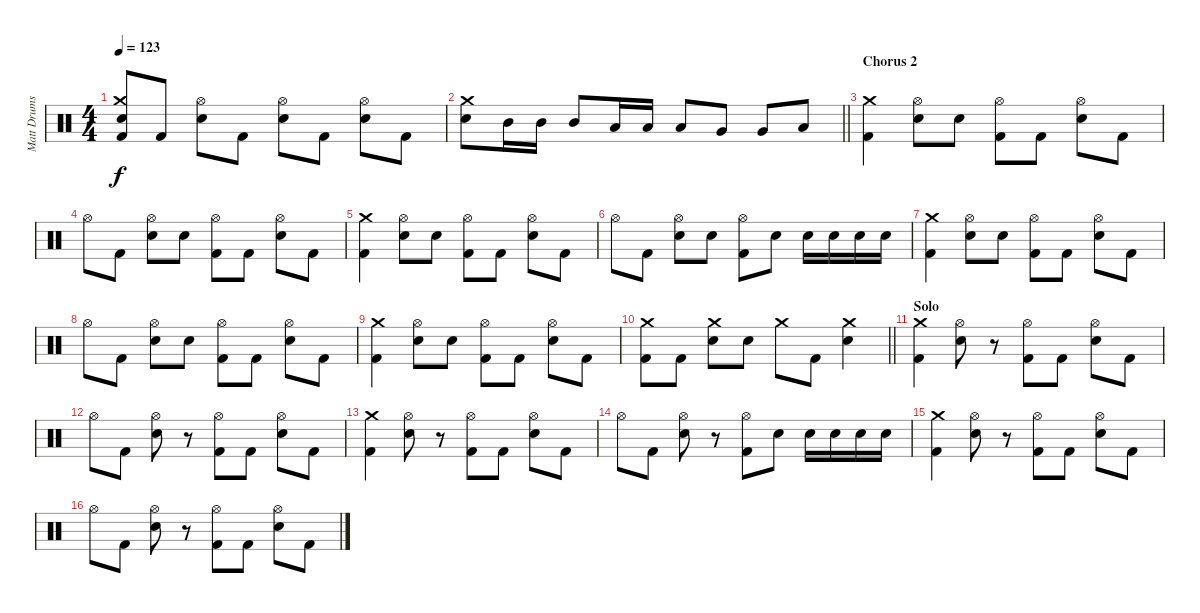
\track ("Matt Drums" "Matt Drums") {instrument percussion}
\staff {score}
\articulation defaults
\ts (4 4)
\tempo 123
\clef neutral
\ks c
("Snare (hit) 2" "Crash medium (hit)" "Kick (hit) 2").8{dy f} "Kick (hit) 2".8 ("Hi-Hat (open)" "Snare (hit) 2").8 "Kick (hit) 2".8 ("Hi-Hat (open)" "Snare (hit) 2").8 "Kick (hit) 2".8 ("Hi-Hat (open)" "Snare (hit) 2").8 "Kick (hit) 2".8 |
\barLineRight lightlight
("Crash medium (hit)" "Snare (hit) 2").8 "Mid Tom (hit)".16 "Mid Tom (hit)".16 "Mid Tom (hit)".8 "Low Tom (hit)".16 "Low Tom (hit)".16 "Low Tom (hit)".8 "Very Low Tom (hit)".8 "Very Low Tom (hit)".8 "Low Floor Tom (hit)".8 |
\section ("" "Chorus 2")
("Crash medium (hit)" "Kick (hit) 2").4 ("Hi-Hat (open)" "Snare (hit) 2").8 "Snare (hit) 2".8 ("Hi-Hat (open)" "Kick (hit) 2").8 "Kick (hit) 2".8 ("Hi-Hat (open)" "Snare (hit) 2").8 "Kick (hit) 2".8 |
"Hi-Hat (open)".8 "Kick (hit) 2".8 ("Hi-Hat (open)" "Snare (hit) 2").8 "Snare (hit) 2".8 ("Hi-Hat (open)" "Kick (hit) 2").8 "Kick (hit) 2".8 ("Hi-Hat (open)" "Snare (hit) 2").8 "Kick (hit) 2".8 |
("Crash medium (hit)" "Kick (hit) 2").4 ("Hi-Hat (open)" "Snare (hit) 2").8 "Snare (hit) 2".8 ("Hi-Hat (open)" "Kick (hit) 2").8 "Kick (hit) 2".8 ("Hi-Hat (open)" "Snare (hit) 2").8 "Kick (hit) 2".8 |
"Hi-Hat (open)".8 "Kick (hit) 2".8 ("Hi-Hat (open)" "Snare (hit) 2").8 "Snare (hit) 2".8 ("Hi-Hat (open)" "Kick (hit) 2").8 "Snare (hit) 2".8 "Snare (hit) 2".16 "Snare (hit) 2".16 "Snare (hit) 2".16 "Snare (hit) 2".16 |
("Crash medium (hit)" "Kick (hit) 2").4 ("Hi-Hat (open)" "Snare (hit) 2").8 "Snare (hit) 2".8 ("Hi-Hat (open)" "Kick (hit) 2").8 "Kick (hit) 2".8 ("Hi-Hat (open)" "Snare (hit) 2").8 "Kick (hit) 2".8 |
"Hi-Hat (open)".8 "Kick (hit) 2".8 ("Hi-Hat (open)" "Snare (hit) 2").8 "Snare (hit) 2".8 ("Hi-Hat (open)" "Kick (hit) 2").8 "Kick (hit) 2".8 ("Hi-Hat (open)" "Snare (hit) 2").8 "Kick (hit) 2".8 |
("Crash medium (hit)" "Kick (hit) 2").4 ("Hi-Hat (open)" "Snare (hit) 2").8 "Snare (hit) 2".8 ("Hi-Hat (open)" "Kick (hit) 2").8 "Kick (hit) 2".8 ("Hi-Hat (open)" "Snare (hit) 2").8 "Kick (hit) 2".8 |
\barLineRight lightlight
("Crash medium (hit)" "Kick (hit) 2").8 "Kick (hit) 2".8 ("Crash medium (hit)" "Snare (hit) 2").8 "Snare (hit) 2".8 "Crash medium (hit)".8 "Kick (hit) 2".8 ("Crash medium (hit)" "Snare (hit) 2").4 |
\section ("" "Solo")
("Crash medium (hit)" "Kick (hit) 2").4 ("Hi-Hat (open)" "Snare (hit) 2").8 r.8 ("Hi-Hat (open)" "Kick (hit) 2").8 "Kick (hit) 2".8 ("Hi-Hat (open)" "Snare (hit) 2").8 "Kick (hit) 2".8 |
"Hi-Hat (open)".8 "Kick (hit) 2".8 ("Hi-Hat (open)" "Snare (hit) 2").8 r.8 ("Hi-Hat (open)" "Kick (hit) 2").8 "Kick (hit) 2".8 ("Hi-Hat (open)" "Snare (hit) 2").8 "Kick (hit) 2".8 |
("Crash medium (hit)" "Kick (hit) 2").4 ("Hi-Hat (open)" "Snare (hit) 2").8 r.8 ("Hi-Hat (open)" "Kick (hit) 2").8 "Kick (hit) 2".8 ("Hi-Hat (open)" "Snare (hit) 2").8 "Kick (hit) 2".8 |
"Hi-Hat (open)".8 "Kick (hit) 2".8 ("Hi-Hat (open)" "Snare (hit) 2").8 r.8 ("Hi-Hat (open)" "Kick (hit) 2").8 "Snare (hit) 2".8 "Snare (hit) 2".16 "Snare (hit) 2".16 "Snare (hit) 2".16 "Snare (hit) 2".16 |
("Crash medium (hit)" "Kick (hit) 2").4 ("Hi-Hat (open)" "Snare (hit) 2").8 r.8 ("Hi-Hat (open)" "Kick (hit) 2").8 "Kick (hit) 2".8 ("Hi-Hat (open)" "Snare (hit) 2").8 "Kick (hit) 2".8 |
"Hi-Hat (open)".8 "Kick (hit) 2".8 ("Hi-Hat (open)" "Snare (hit) 2").8 r.8 ("Hi-Hat (open)" "Kick (hit) 2").8 "Kick (hit) 2".8 ("Hi-Hat (open)" "Snare (hit) 2").8 "Kick (hit) 2".8
